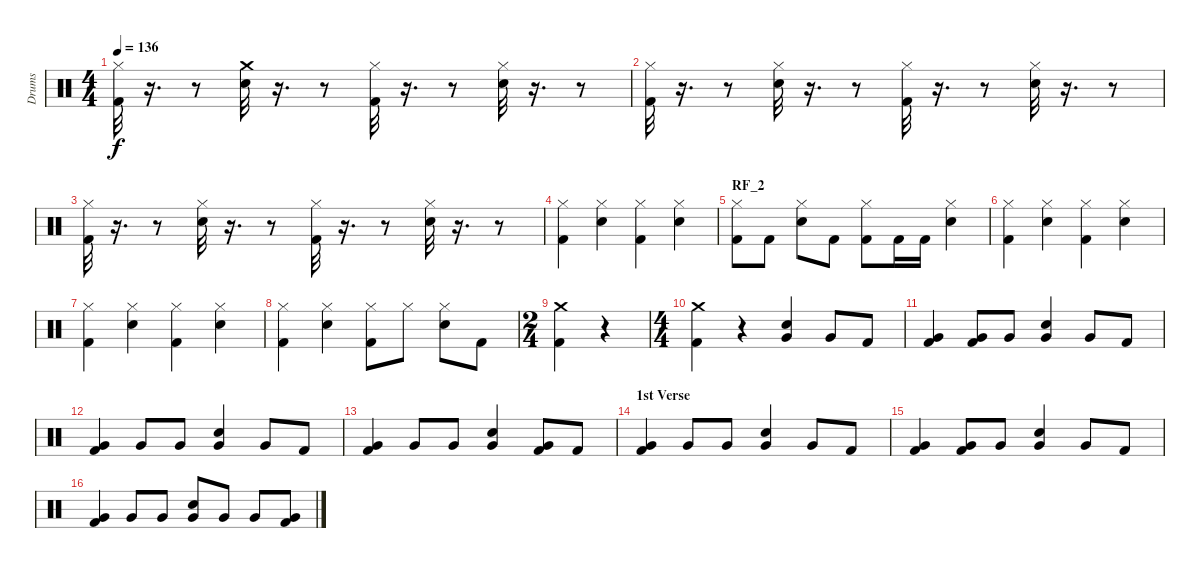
\track ("Drums" "Drums") {instrument percussion}
\staff {score}
\articulation defaults
\ts (4 4)
\tempo 136
\clef neutral
\ks c
("Hi-Hat (closed)" "Kick (hit) 2").32{dy f} r.16{d} r.8 ("Crash medium (hit)" "Snare (hit) 2").32 r.16{d} r.8 ("Hi-Hat (closed)" "Kick (hit) 2").32 r.16{d} r.8 ("Snare (hit) 2" "Hi-Hat (closed)").32 r.16{d} r.8 |
("Kick (hit) 2" "Hi-Hat (closed)").32 r.16{d} r.8 ("Snare (hit) 2" "Hi-Hat (closed)").32 r.16{d} r.8 ("Kick (hit) 2" "Hi-Hat (closed)").32 r.16{d} r.8 ("Snare (hit) 2" "Hi-Hat (closed)").32 r.16{d} r.8 |
("Kick (hit) 2" "Hi-Hat (closed)").32 r.16{d} r.8 ("Snare (hit) 2" "Hi-Hat (closed)").32 r.16{d} r.8 ("Kick (hit) 2" "Hi-Hat (closed)").32 r.16{d} r.8 ("Snare (hit) 2" "Hi-Hat (closed)").32 r.16{d} r.8 |
("Kick (hit) 2" "Hi-Hat (closed)").4 ("Snare (hit) 2" "Hi-Hat (closed)").4 ("Kick (hit) 2" "Hi-Hat (closed)").4 ("Snare (hit) 2" "Hi-Hat (closed)").4 |
\section ("" "RF_2")
("Kick (hit) 2" "Hi-Hat (closed)").8 "Kick (hit) 2".8 ("Snare (hit) 2" "Hi-Hat (closed)").8 "Kick (hit) 2".8 ("Kick (hit) 2" "Hi-Hat (closed)").8 "Kick (hit) 2".16 "Kick (hit) 2".16 ("Snare (hit) 2" "Hi-Hat (closed)").4 |
("Kick (hit) 2" "Hi-Hat (closed)").4 ("Snare (hit) 2" "Hi-Hat (closed)").4 ("Kick (hit) 2" "Hi-Hat (closed)").4 ("Snare (hit) 2" "Hi-Hat (closed)").4 |
("Kick (hit) 2" "Hi-Hat (closed)").4 ("Snare (hit) 2" "Hi-Hat (closed)").4 ("Kick (hit) 2" "Hi-Hat (closed)").4 ("Snare (hit) 2" "Hi-Hat (closed)").4 |
("Kick (hit) 2" "Hi-Hat (closed)").4 ("Snare (hit) 2" "Hi-Hat (closed)").4 ("Hi-Hat (closed)" "Kick (hit) 2").8 "Hi-Hat (closed)".8 ("Snare (hit) 2" "Hi-Hat (closed)").8 "Kick (hit) 2".8 |
\ts (2 4)
("Kick (hit) 2" "Crash medium (hit)").4 r.4 |
\ts (4 4)
("Kick (hit) 2" "Crash medium (hit)").4 r.4 ("Very Low Tom (hit)" "Snare (hit) 2").4 "Very Low Tom (hit)".8 "Kick (hit) 2".8 |
("Kick (hit) 2" "Very Low Tom (hit)").4 ("Kick (hit) 2" "Very Low Tom (hit)").8 "Very Low Tom (hit)".8 ("Snare (hit) 2" "Very Low Tom (hit)").4 "Very Low Tom (hit)".8 "Kick (hit) 2".8 |
("Kick (hit) 2" "Very Low Tom (hit)").4 "Very Low Tom (hit)".8 "Very Low Tom (hit)".8 ("Snare (hit) 2" "Very Low Tom (hit)").4 "Very Low Tom (hit)".8 "Kick (hit) 2".8 |
("Kick (hit) 2" "Very Low Tom (hit)").4 "Very Low Tom (hit)".8 "Very Low Tom (hit)".8 ("Snare (hit) 2" "Very Low Tom (hit)").4 ("Very Low Tom (hit)" "Kick (hit) 2").8 "Kick (hit) 2".8 |
\section ("" "1st Verse")
("Kick (hit) 2" "Very Low Tom (hit)").4 "Very Low Tom (hit)".8 "Very Low Tom (hit)".8 ("Snare (hit) 2" "Very Low Tom (hit)").4 "Very Low Tom (hit)".8 "Kick (hit) 2".8 |
("Kick (hit) 2" "Very Low Tom (hit)").4 ("Kick (hit) 2" "Very Low Tom (hit)").8 "Very Low Tom (hit)".8 ("Snare (hit) 2" "Very Low Tom (hit)").4 "Very Low Tom (hit)".8 "Kick (hit) 2".8 |
("Kick (hit) 2" "Very Low Tom (hit)").4 "Very Low Tom (hit)".8 "Very Low Tom (hit)".8 ("Snare (hit) 2" "Very Low Tom (hit)").8 "Very Low Tom (hit)".8 "Very Low Tom (hit)".8 ("Kick (hit) 2" "Very Low Tom (hit)").8
